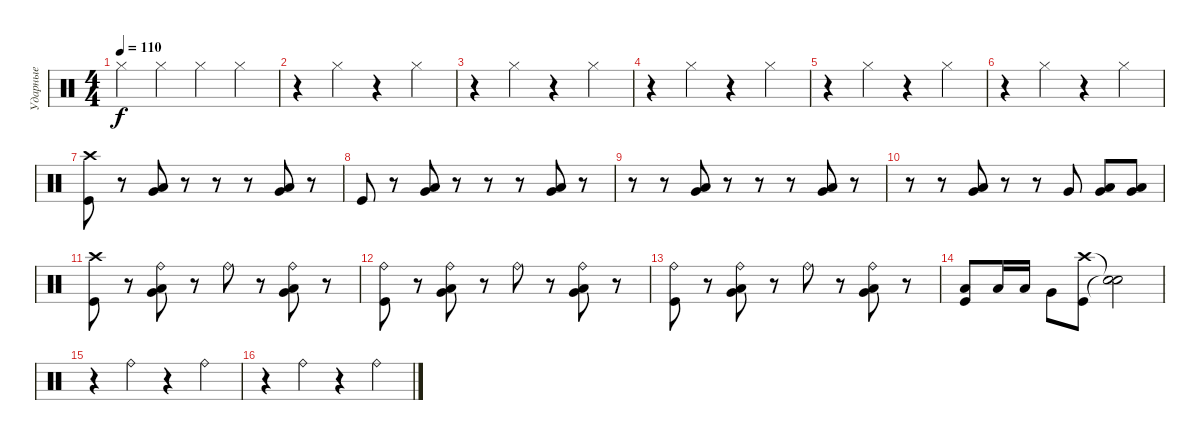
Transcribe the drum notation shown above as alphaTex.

\track ("Ударные" "Ударные") {instrument percussion}
\staff {score}
\articulation defaults
\ts (4 4)
\tempo 110
\clef neutral
\ks c "Hi-Hat (closed)".4{dy f} "Hi-Hat (closed)".4 "Hi-Hat (closed)".4 "Hi-Hat (closed)".4
|
r.4 "Hi-Hat (closed)".4 r.4 "Hi-Hat (closed)".4 |
r.4 "Hi-Hat (closed)".4 r.4 "Hi-Hat (closed)".4 |
r.4 "Hi-Hat (closed)".4 r.4 "Hi-Hat (closed)".4 |
r.4 "Hi-Hat (closed)".4 r.4 "Hi-Hat (closed)".4 |
r.4 "Hi-Hat (closed)".4 r.4 "Hi-Hat (closed)".4 |
("Crash high (hit)" "Kick (hit)").8 r.8 ("Very Low Tom (hit)" "Low Tom (hit)").8 r.8 r.8 r.8 ("Very Low Tom (hit)" "Low Tom (hit)").8 r.8 |
"Kick (hit)".8 r.8 ("Very Low Tom (hit)" "Low Tom (hit)").8 r.8 r.8 r.8 ("Very Low Tom (hit)" "Low Tom (hit)").8 r.8 |
r.8 r.8 ("Very Low Tom (hit)" "Low Tom (hit)").8 r.8 r.8 r.8 ("Very Low Tom (hit)" "Low Tom (hit)").8 r.8 |
r.8 r.8 ("Very Low Tom (hit)" "Low Tom (hit)").8 r.8 r.8 "Very Low Tom (hit)".8 ("Very Low Tom (hit)" "Low Tom (hit)").8 ("Very Low Tom (hit)" "Low Tom (hit)").8 |
("Crash high (hit)" "Kick (hit)").8 r.8 ("Ride (bell)" "Very Low Tom (hit)" "Low Tom (hit)").8 r.8 "Ride (bell)".8 r.8 ("Ride (bell)" "Very Low Tom (hit)" "Low Tom (hit)").8 r.8 |
("Ride (bell)" "Kick (hit)").8 r.8 ("Ride (bell)" "Very Low Tom (hit)" "Low Tom (hit)").8 r.8 "Ride (bell)".8 r.8 ("Ride (bell)" "Very Low Tom (hit)" "Low Tom (hit)").8 r.8 |
("Ride (bell)" "Kick (hit)").8 r.8 ("Ride (bell)" "Very Low Tom (hit)" "Low Tom (hit)").8 r.8 "Ride (bell)".8 r.8 ("Ride (bell)" "Very Low Tom (hit)" "Low Tom (hit)").8 r.8 |
("Low Tom (hit)" "Kick (hit)").8 "Low Tom (hit)".16 "Low Tom (hit)".16 "Very Low Tom (hit)".8 ("Crash high (hit)" "Kick (hit)").8 ("Snare (hit)"{t} "Snare (hit)"{t}).2 |
r.4 "Ride (bell)".4 r.4 "Ride (bell)".4 |
r.4 "Ride (bell)".4 r.4 "Ride (bell)".4
